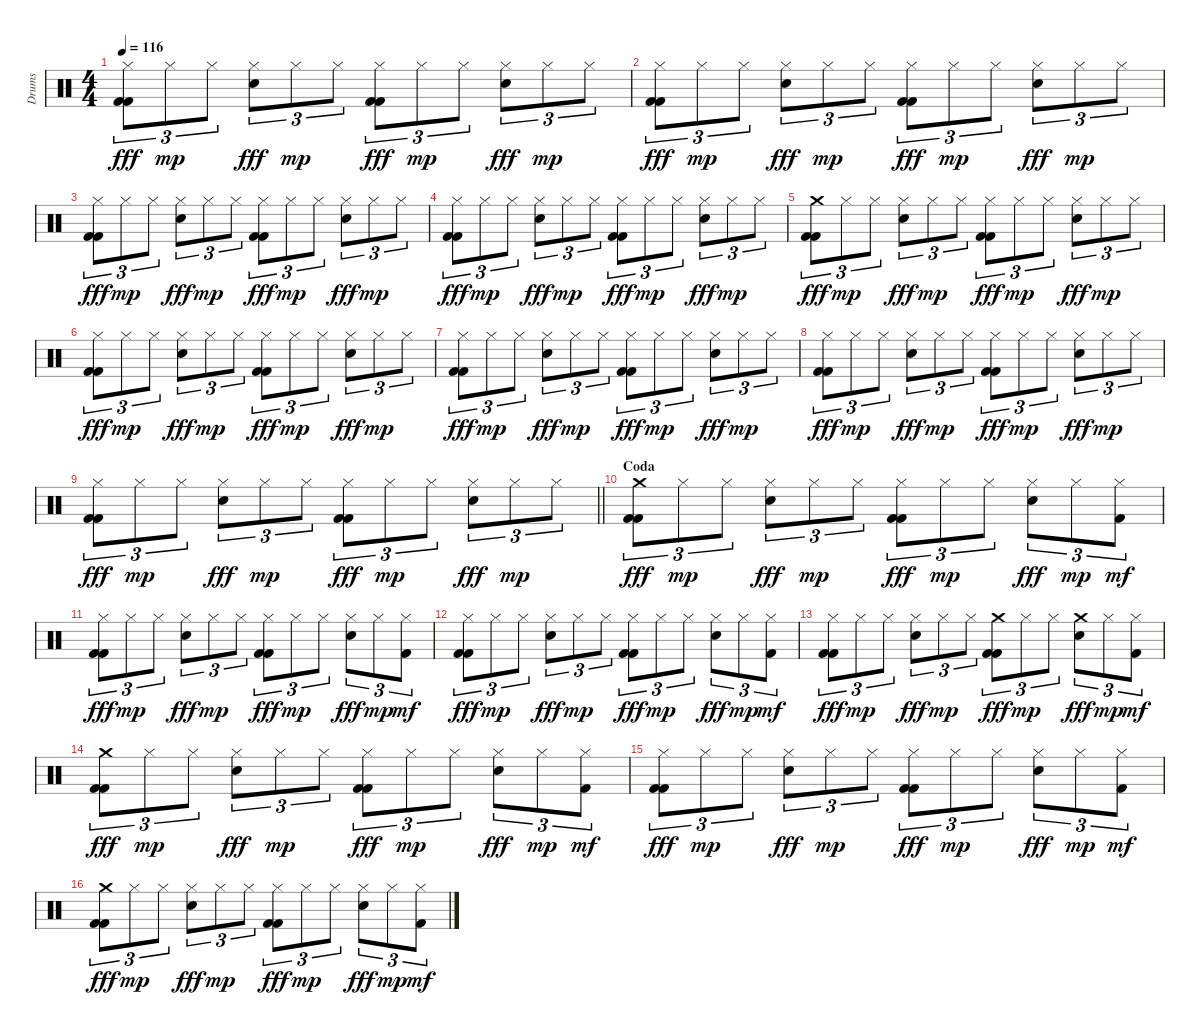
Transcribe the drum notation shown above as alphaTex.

\track ("Drums" "Drums") {instrument percussion}
\staff {score}
\articulation defaults
\ts (4 4)
\tempo 116
\clef neutral
\ks aminor
("Hi-Hat (closed)" "Kick (hit) 2" "Kick (hit) 2").8{tu (3 2) dy fff} "Hi-Hat (closed)".8{tu (3 2) dy mp} "Hi-Hat (closed)".8{tu (3 2)} ("Hi-Hat (closed)" "Snare (hit) 2").8{tu (3 2) dy fff} "Hi-Hat (closed)".8{tu (3 2) dy mp} "Hi-Hat (closed)".8{tu (3 2)} ("Hi-Hat (closed)" "Kick (hit) 2" "Kick (hit) 2").8{tu (3 2) dy fff} "Hi-Hat (closed)".8{tu (3 2) dy mp} "Hi-Hat (closed)".8{tu (3 2)} ("Hi-Hat (closed)" "Snare (hit) 2").8{tu (3 2) dy fff} "Hi-Hat (closed)".8{tu (3 2) dy mp} "Hi-Hat (closed)".8{tu (3 2)} |
("Hi-Hat (closed)" "Kick (hit) 2" "Kick (hit) 2").8{tu (3 2) dy fff} "Hi-Hat (closed)".8{tu (3 2) dy mp} "Hi-Hat (closed)".8{tu (3 2)} ("Hi-Hat (closed)" "Snare (hit) 2").8{tu (3 2) dy fff} "Hi-Hat (closed)".8{tu (3 2) dy mp} "Hi-Hat (closed)".8{tu (3 2)} ("Hi-Hat (closed)" "Kick (hit) 2" "Kick (hit) 2").8{tu (3 2) dy fff} "Hi-Hat (closed)".8{tu (3 2) dy mp} "Hi-Hat (closed)".8{tu (3 2)} ("Hi-Hat (closed)" "Snare (hit) 2").8{tu (3 2) dy fff} "Hi-Hat (closed)".8{tu (3 2) dy mp} "Hi-Hat (closed)".8{tu (3 2)} |
("Hi-Hat (closed)" "Kick (hit) 2" "Kick (hit) 2").8{tu (3 2) dy fff} "Hi-Hat (closed)".8{tu (3 2) dy mp} "Hi-Hat (closed)".8{tu (3 2)} ("Hi-Hat (closed)" "Snare (hit) 2").8{tu (3 2) dy fff} "Hi-Hat (closed)".8{tu (3 2) dy mp} "Hi-Hat (closed)".8{tu (3 2)} ("Hi-Hat (closed)" "Kick (hit) 2" "Kick (hit) 2").8{tu (3 2) dy fff} "Hi-Hat (closed)".8{tu (3 2) dy mp} "Hi-Hat (closed)".8{tu (3 2)} ("Hi-Hat (closed)" "Snare (hit) 2").8{tu (3 2) dy fff} "Hi-Hat (closed)".8{tu (3 2) dy mp} "Hi-Hat (closed)".8{tu (3 2)} |
("Hi-Hat (closed)" "Kick (hit) 2" "Kick (hit) 2").8{tu (3 2) dy fff} "Hi-Hat (closed)".8{tu (3 2) dy mp} "Hi-Hat (closed)".8{tu (3 2)} ("Hi-Hat (closed)" "Snare (hit) 2").8{tu (3 2) dy fff} "Hi-Hat (closed)".8{tu (3 2) dy mp} "Hi-Hat (closed)".8{tu (3 2)} ("Hi-Hat (closed)" "Kick (hit) 2" "Kick (hit) 2").8{tu (3 2) dy fff} "Hi-Hat (closed)".8{tu (3 2) dy mp} "Hi-Hat (closed)".8{tu (3 2)} ("Hi-Hat (closed)" "Snare (hit) 2").8{tu (3 2) dy fff} "Hi-Hat (closed)".8{tu (3 2) dy mp} "Hi-Hat (closed)".8{tu (3 2)} |
("Crash medium (hit)" "Kick (hit) 2" "Kick (hit) 2").8{tu (3 2) dy fff} "Hi-Hat (closed)".8{tu (3 2) dy mp} "Hi-Hat (closed)".8{tu (3 2)} ("Hi-Hat (closed)" "Snare (hit) 2").8{tu (3 2) dy fff} "Hi-Hat (closed)".8{tu (3 2) dy mp} "Hi-Hat (closed)".8{tu (3 2)} ("Hi-Hat (closed)" "Kick (hit) 2" "Kick (hit) 2").8{tu (3 2) dy fff} "Hi-Hat (closed)".8{tu (3 2) dy mp} "Hi-Hat (closed)".8{tu (3 2)} ("Hi-Hat (closed)" "Snare (hit) 2").8{tu (3 2) dy fff} "Hi-Hat (closed)".8{tu (3 2) dy mp} "Hi-Hat (closed)".8{tu (3 2)} |
("Hi-Hat (closed)" "Kick (hit) 2" "Kick (hit) 2").8{tu (3 2) dy fff} "Hi-Hat (closed)".8{tu (3 2) dy mp} "Hi-Hat (closed)".8{tu (3 2)} ("Hi-Hat (closed)" "Snare (hit) 2").8{tu (3 2) dy fff} "Hi-Hat (closed)".8{tu (3 2) dy mp} "Hi-Hat (closed)".8{tu (3 2)} ("Hi-Hat (closed)" "Kick (hit) 2" "Kick (hit) 2").8{tu (3 2) dy fff} "Hi-Hat (closed)".8{tu (3 2) dy mp} "Hi-Hat (closed)".8{tu (3 2)} ("Hi-Hat (closed)" "Snare (hit) 2").8{tu (3 2) dy fff} "Hi-Hat (closed)".8{tu (3 2) dy mp} "Hi-Hat (closed)".8{tu (3 2)} |
("Hi-Hat (closed)" "Kick (hit) 2" "Kick (hit) 2").8{tu (3 2) dy fff} "Hi-Hat (closed)".8{tu (3 2) dy mp} "Hi-Hat (closed)".8{tu (3 2)} ("Hi-Hat (closed)" "Snare (hit) 2").8{tu (3 2) dy fff} "Hi-Hat (closed)".8{tu (3 2) dy mp} "Hi-Hat (closed)".8{tu (3 2)} ("Hi-Hat (closed)" "Kick (hit) 2" "Kick (hit) 2").8{tu (3 2) dy fff} "Hi-Hat (closed)".8{tu (3 2) dy mp} "Hi-Hat (closed)".8{tu (3 2)} ("Hi-Hat (closed)" "Snare (hit) 2").8{tu (3 2) dy fff} "Hi-Hat (closed)".8{tu (3 2) dy mp} "Hi-Hat (closed)".8{tu (3 2)} |
("Hi-Hat (closed)" "Kick (hit) 2" "Kick (hit) 2").8{tu (3 2) dy fff} "Hi-Hat (closed)".8{tu (3 2) dy mp} "Hi-Hat (closed)".8{tu (3 2)} ("Hi-Hat (closed)" "Snare (hit) 2").8{tu (3 2) dy fff} "Hi-Hat (closed)".8{tu (3 2) dy mp} "Hi-Hat (closed)".8{tu (3 2)} ("Hi-Hat (closed)" "Kick (hit) 2" "Kick (hit) 2").8{tu (3 2) dy fff} "Hi-Hat (closed)".8{tu (3 2) dy mp} "Hi-Hat (closed)".8{tu (3 2)} ("Hi-Hat (closed)" "Snare (hit) 2").8{tu (3 2) dy fff} "Hi-Hat (closed)".8{tu (3 2) dy mp} "Hi-Hat (closed)".8{tu (3 2)} |
\barLineRight lightlight
("Hi-Hat (closed)" "Kick (hit) 2" "Kick (hit) 2").8{tu (3 2) dy fff} "Hi-Hat (closed)".8{tu (3 2) dy mp} "Hi-Hat (closed)".8{tu (3 2)} ("Hi-Hat (closed)" "Snare (hit) 2").8{tu (3 2) dy fff} "Hi-Hat (closed)".8{tu (3 2) dy mp} "Hi-Hat (closed)".8{tu (3 2)} ("Hi-Hat (closed)" "Kick (hit) 2" "Kick (hit) 2").8{tu (3 2) dy fff} "Hi-Hat (closed)".8{tu (3 2) dy mp} "Hi-Hat (closed)".8{tu (3 2)} ("Hi-Hat (closed)" "Snare (hit) 2").8{tu (3 2) dy fff} "Hi-Hat (closed)".8{tu (3 2) dy mp} "Hi-Hat (closed)".8{tu (3 2)} |
\section ("" "Coda")
("Crash medium (hit)" "Kick (hit) 2" "Kick (hit) 2").8{tu (3 2) dy fff} "Hi-Hat (closed)".8{tu (3 2) dy mp} "Hi-Hat (closed)".8{tu (3 2)} ("Hi-Hat (closed)" "Snare (hit) 2").8{tu (3 2) dy fff} "Hi-Hat (closed)".8{tu (3 2) dy mp} "Hi-Hat (closed)".8{tu (3 2)} ("Hi-Hat (closed)" "Kick (hit) 2" "Kick (hit) 2").8{tu (3 2) dy fff} "Hi-Hat (closed)".8{tu (3 2) dy mp} "Hi-Hat (closed)".8{tu (3 2)} ("Hi-Hat (closed)" "Snare (hit) 2").8{tu (3 2) dy fff} "Hi-Hat (closed)".8{tu (3 2) dy mp} ("Hi-Hat (closed)" "Kick (hit) 2").8{tu (3 2) dy mf} |
("Hi-Hat (closed)" "Kick (hit) 2" "Kick (hit) 2").8{tu (3 2) dy fff} "Hi-Hat (closed)".8{tu (3 2) dy mp} "Hi-Hat (closed)".8{tu (3 2)} ("Hi-Hat (closed)" "Snare (hit) 2").8{tu (3 2) dy fff} "Hi-Hat (closed)".8{tu (3 2) dy mp} "Hi-Hat (closed)".8{tu (3 2)} ("Hi-Hat (closed)" "Kick (hit) 2" "Kick (hit) 2").8{tu (3 2) dy fff} "Hi-Hat (closed)".8{tu (3 2) dy mp} "Hi-Hat (closed)".8{tu (3 2)} ("Hi-Hat (closed)" "Snare (hit) 2").8{tu (3 2) dy fff} "Hi-Hat (closed)".8{tu (3 2) dy mp} ("Hi-Hat (closed)" "Kick (hit) 2").8{tu (3 2) dy mf} |
("Hi-Hat (closed)" "Kick (hit) 2" "Kick (hit) 2").8{tu (3 2) dy fff} "Hi-Hat (closed)".8{tu (3 2) dy mp} "Hi-Hat (closed)".8{tu (3 2)} ("Hi-Hat (closed)" "Snare (hit) 2").8{tu (3 2) dy fff} "Hi-Hat (closed)".8{tu (3 2) dy mp} "Hi-Hat (closed)".8{tu (3 2)} ("Hi-Hat (closed)" "Kick (hit) 2" "Kick (hit) 2").8{tu (3 2) dy fff} "Hi-Hat (closed)".8{tu (3 2) dy mp} "Hi-Hat (closed)".8{tu (3 2)} ("Hi-Hat (closed)" "Snare (hit) 2").8{tu (3 2) dy fff} "Hi-Hat (closed)".8{tu (3 2) dy mp} ("Hi-Hat (closed)" "Kick (hit) 2").8{tu (3 2) dy mf} |
("Hi-Hat (closed)" "Kick (hit) 2" "Kick (hit) 2").8{tu (3 2) dy fff} "Hi-Hat (closed)".8{tu (3 2) dy mp} "Hi-Hat (closed)".8{tu (3 2)} ("Hi-Hat (closed)" "Snare (hit) 2").8{tu (3 2) dy fff} "Hi-Hat (closed)".8{tu (3 2) dy mp} "Hi-Hat (closed)".8{tu (3 2)} ("Crash medium (hit)" "Kick (hit) 2" "Kick (hit) 2").8{tu (3 2) dy fff} "Hi-Hat (closed)".8{tu (3 2) dy mp} "Hi-Hat (closed)".8{tu (3 2)} ("Crash medium (hit)" "Snare (hit) 2").8{tu (3 2) dy fff} "Hi-Hat (closed)".8{tu (3 2) dy mp} ("Hi-Hat (closed)" "Kick (hit) 2").8{tu (3 2) dy mf} |
("Crash medium (hit)" "Kick (hit) 2" "Kick (hit) 2").8{tu (3 2) dy fff} "Hi-Hat (closed)".8{tu (3 2) dy mp} "Hi-Hat (closed)".8{tu (3 2)} ("Hi-Hat (closed)" "Snare (hit) 2").8{tu (3 2) dy fff} "Hi-Hat (closed)".8{tu (3 2) dy mp} "Hi-Hat (closed)".8{tu (3 2)} ("Hi-Hat (closed)" "Kick (hit) 2" "Kick (hit) 2").8{tu (3 2) dy fff} "Hi-Hat (closed)".8{tu (3 2) dy mp} "Hi-Hat (closed)".8{tu (3 2)} ("Hi-Hat (closed)" "Snare (hit) 2").8{tu (3 2) dy fff} "Hi-Hat (closed)".8{tu (3 2) dy mp} ("Hi-Hat (closed)" "Kick (hit) 2").8{tu (3 2) dy mf} |
("Hi-Hat (closed)" "Kick (hit) 2" "Kick (hit) 2").8{tu (3 2) dy fff} "Hi-Hat (closed)".8{tu (3 2) dy mp} "Hi-Hat (closed)".8{tu (3 2)} ("Hi-Hat (closed)" "Snare (hit) 2").8{tu (3 2) dy fff} "Hi-Hat (closed)".8{tu (3 2) dy mp} "Hi-Hat (closed)".8{tu (3 2)} ("Hi-Hat (closed)" "Kick (hit) 2" "Kick (hit) 2").8{tu (3 2) dy fff} "Hi-Hat (closed)".8{tu (3 2) dy mp} "Hi-Hat (closed)".8{tu (3 2)} ("Hi-Hat (closed)" "Snare (hit) 2").8{tu (3 2) dy fff} "Hi-Hat (closed)".8{tu (3 2) dy mp} ("Hi-Hat (closed)" "Kick (hit) 2").8{tu (3 2) dy mf} |
("Crash medium (hit)" "Kick (hit) 2" "Kick (hit) 2").8{tu (3 2) dy fff} "Hi-Hat (closed)".8{tu (3 2) dy mp} "Hi-Hat (closed)".8{tu (3 2)} ("Hi-Hat (closed)" "Snare (hit) 2").8{tu (3 2) dy fff} "Hi-Hat (closed)".8{tu (3 2) dy mp} "Hi-Hat (closed)".8{tu (3 2)} ("Hi-Hat (closed)" "Kick (hit) 2" "Kick (hit) 2").8{tu (3 2) dy fff} "Hi-Hat (closed)".8{tu (3 2) dy mp} "Hi-Hat (closed)".8{tu (3 2)} ("Hi-Hat (closed)" "Snare (hit) 2").8{tu (3 2) dy fff} "Hi-Hat (closed)".8{tu (3 2) dy mp} ("Hi-Hat (closed)" "Kick (hit) 2").8{tu (3 2) dy mf}
